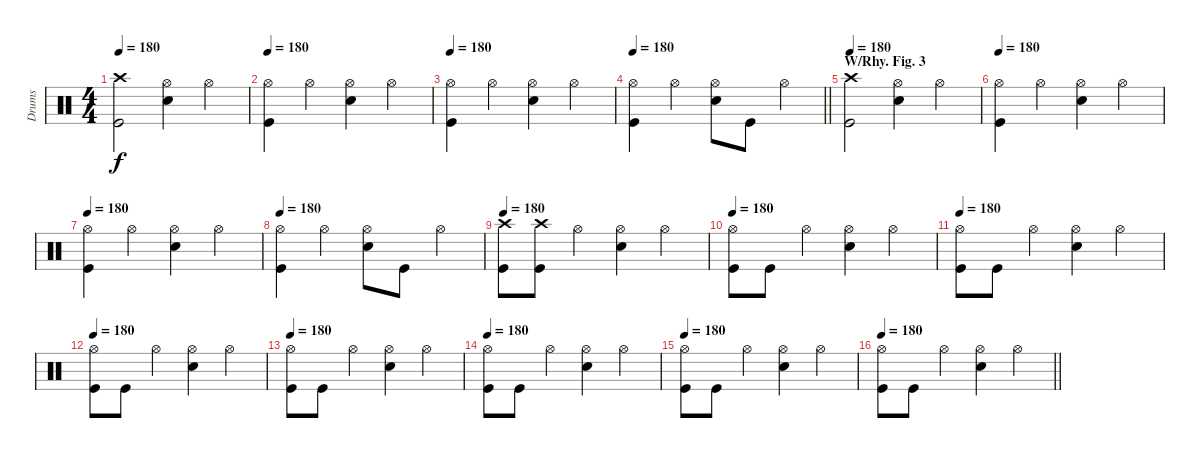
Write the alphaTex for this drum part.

\track ("Drums" "Drums") {instrument percussion}
\staff {score}
\articulation defaults
\ts (4 4)
\tempo 180
\clef neutral
\ks c
("Crash high (hit)" "Kick (hit)").2{dy f} ("Hi-Hat (open)" "Snare (hit) 2").4 "Hi-Hat (open)".4 |
\tempo 180
("Hi-Hat (open)" "Kick (hit)").4 "Hi-Hat (open)".4 ("Hi-Hat (open)" "Snare (hit) 2").4 "Hi-Hat (open)".4 |
\tempo 180
("Hi-Hat (open)" "Kick (hit)").4 "Hi-Hat (open)".4 ("Hi-Hat (open)" "Snare (hit) 2").4 "Hi-Hat (open)".4 |
\tempo 180
\barLineRight lightlight
("Hi-Hat (open)" "Kick (hit)").4 "Hi-Hat (open)".4 ("Hi-Hat (open)" "Snare (hit) 2").8 "Kick (hit)".8 "Hi-Hat (open)".4 |
\section ("" "W/Rhy. Fig. 3")
\tempo 180
("Crash high (hit)" "Kick (hit)").2 ("Hi-Hat (open)" "Snare (hit) 2").4 "Hi-Hat (open)".4 |
\tempo 180
("Hi-Hat (open)" "Kick (hit)").4 "Hi-Hat (open)".4 ("Hi-Hat (open)" "Snare (hit) 2").4 "Hi-Hat (open)".4 |
\tempo 180
("Hi-Hat (open)" "Kick (hit)").4 "Hi-Hat (open)".4 ("Hi-Hat (open)" "Snare (hit) 2").4 "Hi-Hat (open)".4 |
\tempo 180
("Hi-Hat (open)" "Kick (hit)").4 "Hi-Hat (open)".4 ("Hi-Hat (open)" "Snare (hit) 2").8 "Kick (hit)".8 "Hi-Hat (open)".4 |
\tempo 180
("Crash high (hit)" "Kick (hit)").8 ("Crash high (hit)" "Kick (hit)").8 "Hi-Hat (open)".4 ("Hi-Hat (open)" "Snare (hit) 2").4 "Hi-Hat (open)".4 |
\tempo 180
("Hi-Hat (open)" "Kick (hit)").8 "Kick (hit)".8 "Hi-Hat (open)".4 ("Hi-Hat (open)" "Snare (hit) 2").4 "Hi-Hat (open)".4 |
\tempo 180
("Hi-Hat (open)" "Kick (hit)").8 "Kick (hit)".8 "Hi-Hat (open)".4 ("Hi-Hat (open)" "Snare (hit) 2").4 "Hi-Hat (open)".4 |
\tempo 180
("Hi-Hat (open)" "Kick (hit)").8 "Kick (hit)".8 "Hi-Hat (open)".4 ("Hi-Hat (open)" "Snare (hit) 2").4 "Hi-Hat (open)".4 |
\tempo 180
("Hi-Hat (open)" "Kick (hit)").8 "Kick (hit)".8 "Hi-Hat (open)".4 ("Hi-Hat (open)" "Snare (hit) 2").4 "Hi-Hat (open)".4 |
\tempo 180
("Hi-Hat (open)" "Kick (hit)").8 "Kick (hit)".8 "Hi-Hat (open)".4 ("Hi-Hat (open)" "Snare (hit) 2").4 "Hi-Hat (open)".4 |
\tempo 180
("Hi-Hat (open)" "Kick (hit)").8 "Kick (hit)".8 "Hi-Hat (open)".4 ("Hi-Hat (open)" "Snare (hit) 2").4 "Hi-Hat (open)".4 |
\tempo 180
\barLineRight lightlight
("Hi-Hat (open)" "Kick (hit)").8 "Kick (hit)".8 "Hi-Hat (open)".4 ("Hi-Hat (open)" "Snare (hit) 2").4 "Hi-Hat (open)".4
